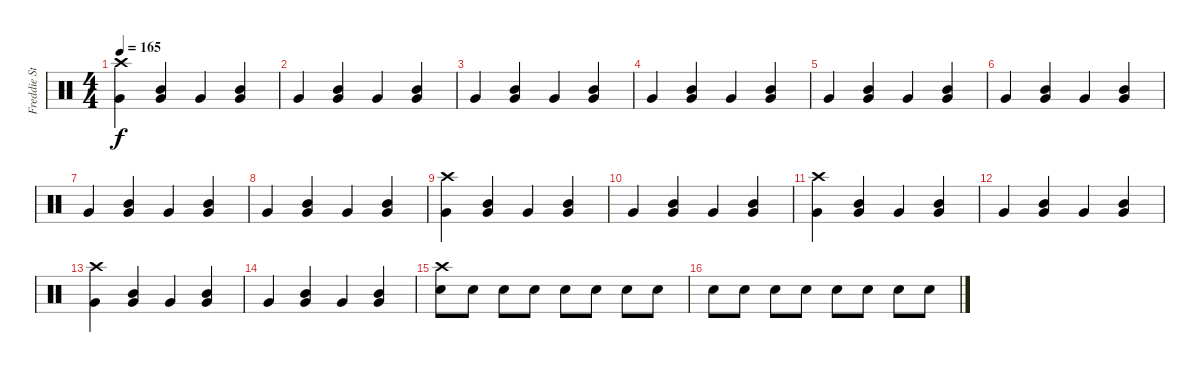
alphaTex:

\track ("Freddie Strauks" "Freddie St") {instrument percussion}
\staff {score}
\articulation defaults
\ts (4 4)
\tempo 165
\clef neutral
\ks c
("Crash high (hit)" "Very Low Tom (hit)").4{dy f volume 16} ("Very Low Tom (hit)" "Mid Tom (hit)").4 "Very Low Tom (hit)".4 ("Very Low Tom (hit)" "Mid Tom (hit)").4 |
"Very Low Tom (hit)".4 ("Very Low Tom (hit)" "Mid Tom (hit)").4 "Very Low Tom (hit)".4 ("Very Low Tom (hit)" "Mid Tom (hit)").4 |
"Very Low Tom (hit)".4 ("Very Low Tom (hit)" "Mid Tom (hit)").4 "Very Low Tom (hit)".4 ("Very Low Tom (hit)" "Mid Tom (hit)").4 |
"Very Low Tom (hit)".4 ("Very Low Tom (hit)" "Mid Tom (hit)").4 "Very Low Tom (hit)".4 ("Very Low Tom (hit)" "Mid Tom (hit)").4 |
"Very Low Tom (hit)".4 ("Very Low Tom (hit)" "Mid Tom (hit)").4 "Very Low Tom (hit)".4 ("Very Low Tom (hit)" "Mid Tom (hit)").4 |
"Very Low Tom (hit)".4 ("Very Low Tom (hit)" "Mid Tom (hit)").4 "Very Low Tom (hit)".4 ("Very Low Tom (hit)" "Mid Tom (hit)").4 |
"Very Low Tom (hit)".4 ("Very Low Tom (hit)" "Mid Tom (hit)").4 "Very Low Tom (hit)".4 ("Very Low Tom (hit)" "Mid Tom (hit)").4 |
"Very Low Tom (hit)".4 ("Very Low Tom (hit)" "Mid Tom (hit)").4 "Very Low Tom (hit)".4 ("Very Low Tom (hit)" "Mid Tom (hit)").4 |
("Crash high (hit)" "Very Low Tom (hit)").4 ("Very Low Tom (hit)" "Mid Tom (hit)").4 "Very Low Tom (hit)".4 ("Very Low Tom (hit)" "Mid Tom (hit)").4 |
"Very Low Tom (hit)".4 ("Very Low Tom (hit)" "Mid Tom (hit)").4 "Very Low Tom (hit)".4 ("Very Low Tom (hit)" "Mid Tom (hit)").4 |
("Crash high (hit)" "Very Low Tom (hit)").4 ("Very Low Tom (hit)" "Mid Tom (hit)").4 "Very Low Tom (hit)".4 ("Very Low Tom (hit)" "Mid Tom (hit)").4 |
"Very Low Tom (hit)".4 ("Very Low Tom (hit)" "Mid Tom (hit)").4 "Very Low Tom (hit)".4 ("Very Low Tom (hit)" "Mid Tom (hit)").4 |
("Crash high (hit)" "Very Low Tom (hit)").4 ("Very Low Tom (hit)" "Mid Tom (hit)").4 "Very Low Tom (hit)".4 ("Very Low Tom (hit)" "Mid Tom (hit)").4 |
"Very Low Tom (hit)".4 ("Very Low Tom (hit)" "Mid Tom (hit)").4 "Very Low Tom (hit)".4 ("Very Low Tom (hit)" "Mid Tom (hit)").4 |
("Crash high (hit)" "Snare (hit) 2").8 "Snare (hit) 2".8 "Snare (hit) 2".8 "Snare (hit) 2".8 "Snare (hit) 2".8 "Snare (hit) 2".8 "Snare (hit) 2".8 "Snare (hit) 2".8 |
"Snare (hit) 2".8 "Snare (hit) 2".8 "Snare (hit) 2".8 "Snare (hit) 2".8 "Snare (hit) 2".8 "Snare (hit) 2".8 "Snare (hit) 2".8 "Snare (hit) 2".8
